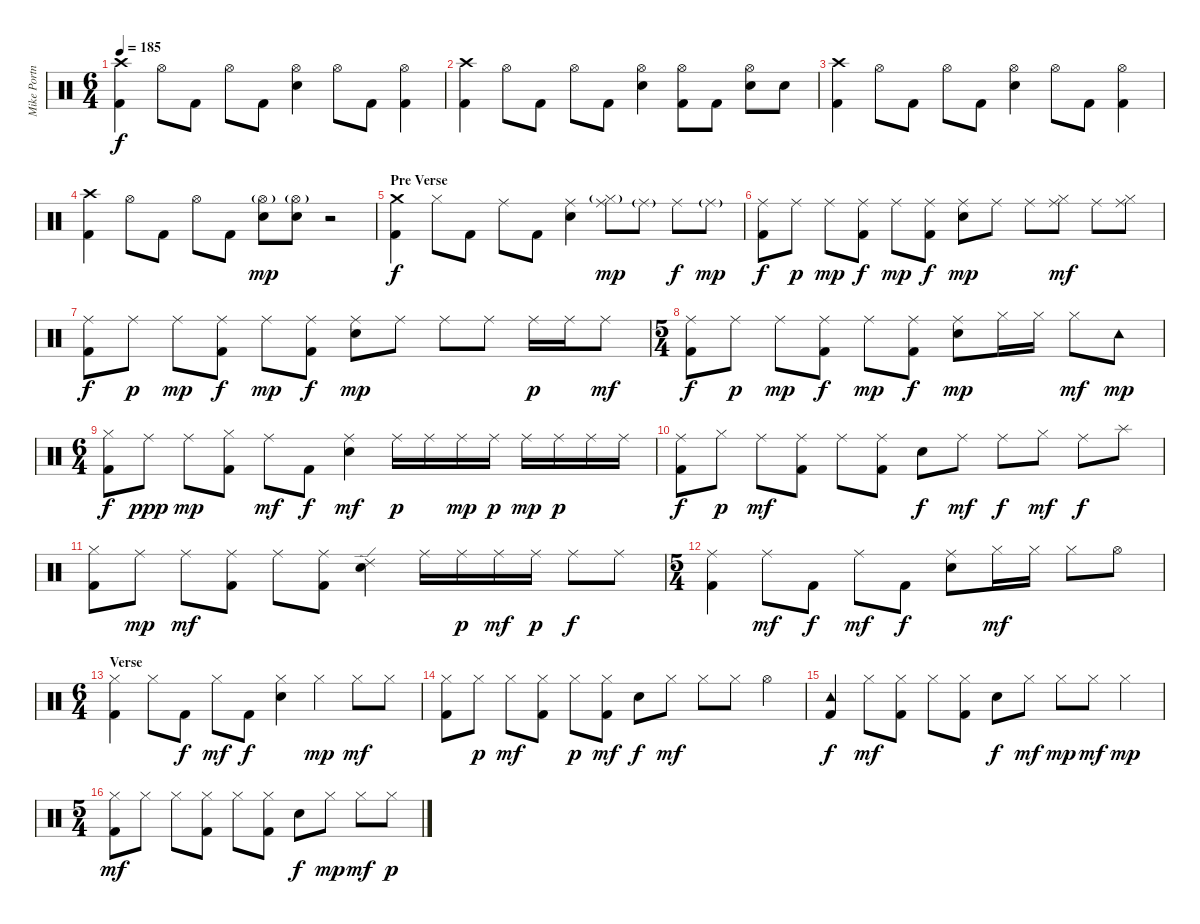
\track ("Mike Portnoy" "Mike Portn") {instrument percussion}
\staff {score}
\articulation defaults
\ts (6 4)
\tempo 185
\clef neutral
\ks c
("Crash high (hit)" "Kick (hit) 2").4{dy f} "Hi-Hat (open)".8 "Kick (hit) 2".8 "Hi-Hat (open)".8 "Kick (hit) 2".8 ("Snare (hit) 2" "Hi-Hat (open)").4 "Hi-Hat (open)".8 "Kick (hit) 2".8 ("Hi-Hat (open)" "Kick (hit) 2").4 |
("Crash high (hit)" "Kick (hit) 2").4 "Hi-Hat (open)".8 "Kick (hit) 2".8 "Hi-Hat (open)".8 "Kick (hit) 2".8 ("Snare (hit) 2" "Hi-Hat (open)").4 ("Hi-Hat (open)" "Kick (hit) 2").8 "Kick (hit) 2".8 ("Snare (hit) 2" "Hi-Hat (open)").8 "Snare (hit) 2".8 |
("Crash high (hit)" "Kick (hit) 2").4 "Hi-Hat (open)".8 "Kick (hit) 2".8 "Hi-Hat (open)".8 "Kick (hit) 2".8 ("Snare (hit) 2" "Hi-Hat (open)").4 "Hi-Hat (open)".8 "Kick (hit) 2".8 ("Hi-Hat (open)" "Kick (hit) 2").4 |
("Crash high (hit)" "Kick (hit) 2").4 "Hi-Hat (open)".8 "Kick (hit) 2".8 "Hi-Hat (open)".8 "Kick (hit) 2".8 ("Snare (hit) 2" "Hi-Hat (open)"{g}).8{dy mp} ("Snare (hit) 2" "Hi-Hat (open)"{g}).8 r.2 |
\section ("" "Pre Verse ")
("Crash medium (hit)" "Kick (hit) 2").4{dy f} "Hi-Hat (closed)".8 "Kick (hit) 2".8 "Ride (middle)".8 "Kick (hit) 2".8 ("Snare (hit) 2" "Ride (middle)").4 ("Hi-Hat (closed)"{g} "Ride (middle)").8{dy mp} "Ride (middle)"{g}.8 "Ride (middle)".8{dy f} "Ride (middle)"{g}.8{dy mp} |
("Ride (middle)" "Kick (hit) 2").8{dy f} "Ride (middle)".8{dy p} "Ride (middle)".8{dy mp} ("Ride (middle)" "Kick (hit) 2").8{dy f} "Ride (middle)".8{dy mp} ("Ride (middle)" "Kick (hit) 2").8{dy f} ("Snare (hit) 2" "Ride (middle)").8{dy mp} "Ride (middle)".8 "Ride (middle)".8 ("Hi-Hat (closed)" "Ride (middle)").8{dy mf} "Ride (middle)".8 ("Hi-Hat (closed)" "Ride (middle)").8 |
("Ride (middle)" "Kick (hit) 2").8{dy f} "Ride (middle)".8{dy p} "Ride (middle)".8{dy mp} ("Ride (middle)" "Kick (hit) 2").8{dy f} "Ride (middle)".8{dy mp} ("Ride (middle)" "Kick (hit) 2").8{dy f} ("Snare (hit) 2" "Ride (middle)").8{dy mp} "Ride (middle)".8 "Ride (middle)".8 "Ride (middle)".8 "Ride (middle)".16{dy p} "Ride (middle)".16 "Ride (middle)".8{dy mf} |
\ts (5 4)
("Ride (middle)" "Kick (hit) 2").8{dy f} "Ride (middle)".8{dy p} "Ride (middle)".8{dy mp} ("Ride (middle)" "Kick (hit) 2").8{dy f} "Ride (middle)".8{dy mp} ("Ride (middle)" "Kick (hit) 2").8{dy f} ("Snare (hit) 2" "Ride (middle)").8{dy mp} "Hi-Hat (closed)".16 "Hi-Hat (closed)".16 "Hi-Hat (closed)".8{dy mf} "Tambourine (hit)".8{dy mp} |
\ts (6 4)
("Hi-Hat (closed)" "Kick (hit) 2").8{dy f} "Ride (middle)".8{dy ppp} "Ride (middle)".8{dy mp} ("Hi-Hat (closed)" "Kick (hit) 2").8 "Ride (middle)".8{dy mf} "Kick (hit) 2".8{dy f} ("Snare (hit) 2" "Ride (middle)").4{dy mf} "Ride (middle)".16{dy p} "Ride (middle)".16 "Ride (middle)".16{dy mp} "Ride (middle)".16{dy p} "Ride (middle)".16{dy mp} "Ride (middle)".16{dy p} "Ride (middle)".16 "Ride (middle)".16 |
("Ride (middle)" "Kick (hit) 2").8{dy f} "Hi-Hat (closed)".8{dy p} "Ride (middle)".8{dy mf} ("Ride (middle)" "Kick (hit) 2").8 "Ride (middle)".8 ("Ride (middle)" "Kick (hit) 2").8 "Snare (hit) 2".8{dy f} "Ride (middle)".8{dy mf} "Ride (middle)".8{dy f} "Hi-Hat (closed)".8{dy mf} "Ride (middle)".8{dy f} "Splash (hit)".8 |
("Hi-Hat (closed)" "Kick (hit) 2").8 "Ride (middle)".8{dy mp} "Ride (middle)".8{dy mf} ("Ride (middle)" "Kick (hit) 2").8 "Ride (middle)".8 ("Ride (middle)" "Kick (hit) 2").8 ("Snare (hit) 2" "Ride (edge) 2").4 "Ride (middle)".16 "Ride (middle)".16{dy p} "Ride (middle)".16{dy mf} "Ride (middle)".16{dy p} "Ride (middle)".8{dy f} "Ride (middle)".8 |
\ts (5 4)
("Ride (middle)" "Kick (hit) 2").4 "Ride (middle)".8{dy mf} "Kick (hit) 2".8{dy f} "Ride (middle)".8{dy mf} "Kick (hit) 2".8{dy f} ("Snare (hit) 2" "Ride (middle)").8 "Hi-Hat (closed)".16{dy mf} "Hi-Hat (closed)".16 "Hi-Hat (closed)".8 "Hi-Hat (open)".8 |
\ts (6 4)
\section ("" "Verse ")
("Hi-Hat (closed)" "Kick (hit) 2").4 "Hi-Hat (closed)".8 "Kick (hit) 2".8{dy f} "Hi-Hat (closed)".8{dy mf} "Kick (hit) 2".8{dy f} ("Snare (hit) 2" "Hi-Hat (closed)").4 "Hi-Hat (closed)".4{dy mp} "Hi-Hat (closed)".8{dy mf} "Hi-Hat (closed)".8 |
("Hi-Hat (closed)" "Kick (hit) 2").8 "Hi-Hat (closed)".8{dy p} "Hi-Hat (closed)".8{dy mf} ("Hi-Hat (closed)" "Kick (hit) 2").8 "Hi-Hat (closed)".8{dy p} ("Hi-Hat (closed)" "Kick (hit) 2").8{dy mf} "Snare (hit) 2".8{dy f} "Hi-Hat (closed)".8{dy mf} "Hi-Hat (closed)".8 "Hi-Hat (closed)".8 "Hi-Hat (open)".4 |
("Tambourine (hit)" "Kick (hit) 2").4{dy f} "Hi-Hat (closed)".8{dy mf} ("Hi-Hat (closed)" "Kick (hit) 2").8 "Hi-Hat (closed)".8 ("Hi-Hat (closed)" "Kick (hit) 2").8 "Snare (hit) 2".8{dy f} "Hi-Hat (closed)".8{dy mf} "Hi-Hat (closed)".8{dy mp} "Hi-Hat (closed)".8{dy mf} "Hi-Hat (closed)".4{dy mp} |
\ts (5 4)
("Hi-Hat (closed)" "Kick (hit) 2").8{dy mf} "Hi-Hat (closed)".8 "Hi-Hat (closed)".8 ("Hi-Hat (closed)" "Kick (hit) 2").8 "Hi-Hat (closed)".8 ("Hi-Hat (closed)" "Kick (hit) 2").8 "Snare (hit) 2".8{dy f} "Hi-Hat (closed)".8{dy mp} "Hi-Hat (closed)".8{dy mf} "Hi-Hat (closed)".8{dy p}
